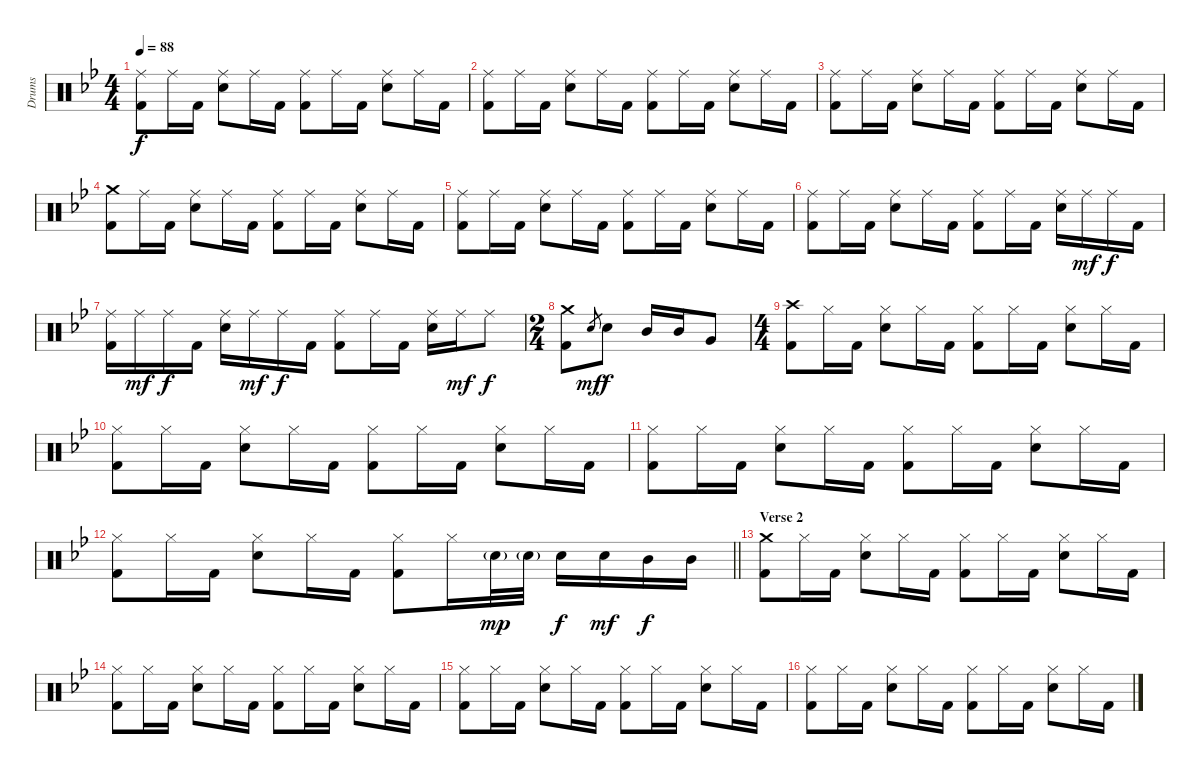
\track ("Drums" "Drums") {instrument percussion}
\staff {score}
\articulation defaults
\ts (4 4)
\tempo 88
\clef neutral
\ks gminor
("Ride (middle)" "Kick (hit) 2").8{dy f} "Ride (middle)".16 "Kick (hit) 2".16 ("Ride (middle)" "Electric Snare (hit)").8 "Ride (middle)".16 "Kick (hit) 2".16 ("Ride (middle)" "Kick (hit) 2").8 "Ride (middle)".16 "Kick (hit) 2".16 ("Ride (middle)" "Electric Snare (hit)").8 "Ride (middle)".16 "Kick (hit) 2".16 |
("Ride (middle)" "Kick (hit) 2").8 "Ride (middle)".16 "Kick (hit) 2".16 ("Ride (middle)" "Electric Snare (hit)").8 "Ride (middle)".16 "Kick (hit) 2".16 ("Ride (middle)" "Kick (hit) 2").8 "Ride (middle)".16 "Kick (hit) 2".16 ("Ride (middle)" "Electric Snare (hit)").8 "Ride (middle)".16 "Kick (hit) 2".16 |
("Ride (middle)" "Kick (hit) 2").8 "Ride (middle)".16 "Kick (hit) 2".16 ("Ride (middle)" "Electric Snare (hit)").8 "Ride (middle)".16 "Kick (hit) 2".16 ("Ride (middle)" "Kick (hit) 2").8 "Ride (middle)".16 "Kick (hit) 2".16 ("Ride (middle)" "Electric Snare (hit)").8 "Ride (middle)".16 "Kick (hit) 2".16 |
("Crash medium (hit)" "Kick (hit) 2").8 "Ride (middle)".16 "Kick (hit) 2".16 ("Ride (middle)" "Electric Snare (hit)").8 "Ride (middle)".16 "Kick (hit) 2".16 ("Ride (middle)" "Kick (hit) 2").8 "Ride (middle)".16 "Kick (hit) 2".16 ("Ride (middle)" "Electric Snare (hit)").8 "Ride (middle)".16 "Kick (hit) 2".16 |
("Ride (middle)" "Kick (hit) 2").8 "Ride (middle)".16 "Kick (hit) 2".16 ("Ride (middle)" "Electric Snare (hit)").8 "Ride (middle)".16 "Kick (hit) 2".16 ("Ride (middle)" "Kick (hit) 2").8 "Ride (middle)".16 "Kick (hit) 2".16 ("Ride (middle)" "Electric Snare (hit)").8 "Ride (middle)".16 "Kick (hit) 2".16 |
("Ride (middle)" "Kick (hit) 2").8 "Ride (middle)".16 "Kick (hit) 2".16 ("Ride (middle)" "Electric Snare (hit)").8 "Ride (middle)".16 "Kick (hit) 2".16 ("Ride (middle)" "Kick (hit) 2").8 "Ride (middle)".16 "Kick (hit) 2".16 ("Ride (middle)" "Electric Snare (hit)").16 "Ride (middle)".16{dy mf} "Ride (middle)".16{dy f} "Kick (hit) 2".16 |
("Ride (middle)" "Kick (hit) 2").16 "Ride (middle)".16{dy mf} "Ride (middle)".16{dy f} "Kick (hit) 2".16 ("Ride (middle)" "Electric Snare (hit)").16 "Ride (middle)".16{dy mf} "Ride (middle)".16{dy f} "Kick (hit) 2".16 ("Ride (middle)" "Kick (hit) 2").8 "Ride (middle)".16 "Kick (hit) 2".16 ("Ride (middle)" "Electric Snare (hit)").16 "Ride (middle)".16{dy mf} "Ride (middle)".8{dy f} |
\ts (2 4)
("Crash medium (hit)" "Kick (hit) 2").8 "Electric Snare (hit)".8{gr dy mf} "Electric Snare (hit)".8{dy f} "Mid Tom (hit)".16 "Mid Tom (hit)".16 "Very Low Tom (hit)".8 |
\ts (4 4)
("Crash high (hit)" "Kick (hit) 2").8 "Hi-Hat (closed)".16 "Kick (hit) 2".16 ("Hi-Hat (closed)" "Electric Snare (hit)").8 "Hi-Hat (closed)".16 "Kick (hit) 2".16 ("Hi-Hat (closed)" "Kick (hit) 2").8 "Hi-Hat (closed)".16 "Kick (hit) 2".16 ("Hi-Hat (closed)" "Electric Snare (hit)").8 "Hi-Hat (closed)".16 "Kick (hit) 2".16 |
("Hi-Hat (closed)" "Kick (hit) 2").8 "Hi-Hat (closed)".16 "Kick (hit) 2".16 ("Hi-Hat (closed)" "Electric Snare (hit)").8 "Hi-Hat (closed)".16 "Kick (hit) 2".16 ("Hi-Hat (closed)" "Kick (hit) 2").8 "Hi-Hat (closed)".16 "Kick (hit) 2".16 ("Hi-Hat (closed)" "Electric Snare (hit)").8 "Hi-Hat (closed)".16 "Kick (hit) 2".16 |
("Hi-Hat (closed)" "Kick (hit) 2").8 "Hi-Hat (closed)".16 "Kick (hit) 2".16 ("Hi-Hat (closed)" "Electric Snare (hit)").8 "Hi-Hat (closed)".16 "Kick (hit) 2".16 ("Hi-Hat (closed)" "Kick (hit) 2").8 "Hi-Hat (closed)".16 "Kick (hit) 2".16 ("Hi-Hat (closed)" "Electric Snare (hit)").8 "Hi-Hat (closed)".16 "Kick (hit) 2".16 |
\barLineRight lightlight
("Hi-Hat (closed)" "Kick (hit) 2").8 "Hi-Hat (closed)".16 "Kick (hit) 2".16 ("Hi-Hat (closed)" "Electric Snare (hit)").8 "Hi-Hat (closed)".16 "Kick (hit) 2".16 ("Hi-Hat (closed)" "Kick (hit) 2").8 "Hi-Hat (closed)".16 "Electric Snare (hit)"{g}.32{dy mp} "Electric Snare (hit)"{g}.32 "Electric Snare (hit)".16{dy f} "Electric Snare (hit)".16{dy mf} "Mid Tom (hit)".16{dy f} "Mid Tom (hit)".16 |
\section ("" "Verse 2")
("Crash medium (hit)" "Kick (hit) 2").8 "Hi-Hat (closed)".16 "Kick (hit) 2".16 ("Hi-Hat (closed)" "Electric Snare (hit)").8 "Hi-Hat (closed)".16 "Kick (hit) 2".16 ("Hi-Hat (closed)" "Kick (hit) 2").8 "Hi-Hat (closed)".16 "Kick (hit) 2".16 ("Hi-Hat (closed)" "Electric Snare (hit)").8 "Hi-Hat (closed)".16 "Kick (hit) 2".16 |
("Hi-Hat (closed)" "Kick (hit) 2").8 "Hi-Hat (closed)".16 "Kick (hit) 2".16 ("Hi-Hat (closed)" "Electric Snare (hit)").8 "Hi-Hat (closed)".16 "Kick (hit) 2".16 ("Hi-Hat (closed)" "Kick (hit) 2").8 "Hi-Hat (closed)".16 "Kick (hit) 2".16 ("Hi-Hat (closed)" "Electric Snare (hit)").8 "Hi-Hat (closed)".16 "Kick (hit) 2".16 |
("Hi-Hat (closed)" "Kick (hit) 2").8 "Hi-Hat (closed)".16 "Kick (hit) 2".16 ("Hi-Hat (closed)" "Electric Snare (hit)").8 "Hi-Hat (closed)".16 "Kick (hit) 2".16 ("Hi-Hat (closed)" "Kick (hit) 2").8 "Hi-Hat (closed)".16 "Kick (hit) 2".16 ("Hi-Hat (closed)" "Electric Snare (hit)").8 "Hi-Hat (closed)".16 "Kick (hit) 2".16 |
("Hi-Hat (closed)" "Kick (hit) 2").8 "Hi-Hat (closed)".16 "Kick (hit) 2".16 ("Hi-Hat (closed)" "Electric Snare (hit)").8 "Hi-Hat (closed)".16 "Kick (hit) 2".16 ("Hi-Hat (closed)" "Kick (hit) 2").8 "Hi-Hat (closed)".16 "Kick (hit) 2".16 ("Hi-Hat (closed)" "Electric Snare (hit)").8 "Hi-Hat (closed)".16 "Kick (hit) 2".16
